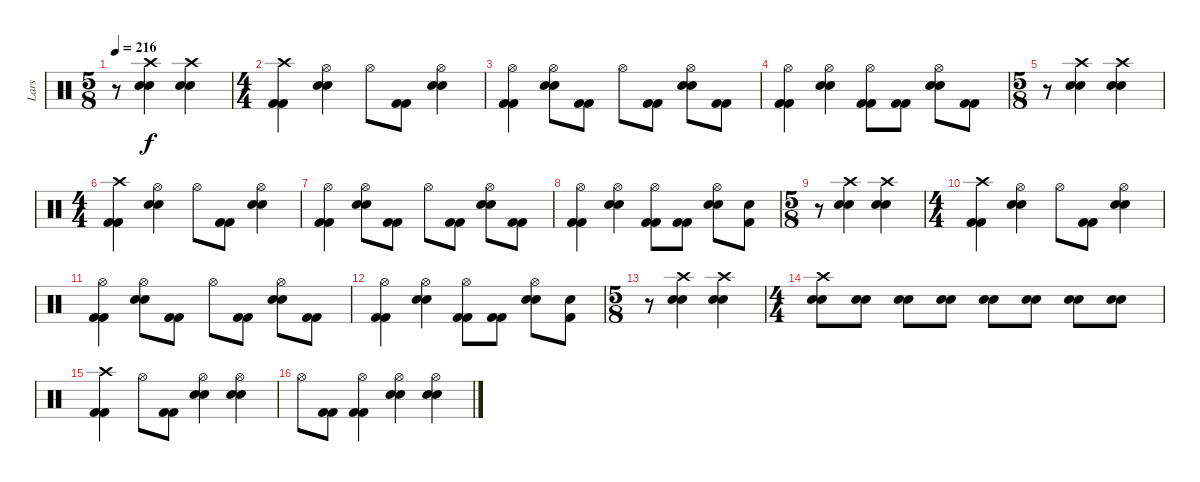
\track ("Lars" "Lars") {instrument percussion}
\staff {score}
\articulation defaults
\ts (5 8)
\tempo 216
\clef neutral
\ks c
r.8{dy f} ("Crash high (hit)" "Electric Snare (hit)" "Electric Snare (hit)").4 ("Crash high (hit)" "Electric Snare (hit)" "Electric Snare (hit)").4 |
\ts (4 4)
("Crash high (hit)" "Kick (hit) 2" "Kick (hit) 2").4 ("Hi-Hat (open)" "Electric Snare (hit)" "Electric Snare (hit)").4 "Hi-Hat (open)".8 ("Kick (hit) 2" "Kick (hit) 2").8 ("Hi-Hat (open)" "Electric Snare (hit)" "Electric Snare (hit)").4 |
("Hi-Hat (open)" "Kick (hit) 2" "Kick (hit) 2").4 ("Hi-Hat (open)" "Electric Snare (hit)" "Electric Snare (hit)").8 ("Kick (hit) 2" "Kick (hit) 2").8 "Hi-Hat (open)".8 ("Kick (hit) 2" "Kick (hit) 2").8 ("Hi-Hat (open)" "Electric Snare (hit)" "Electric Snare (hit)").8 ("Kick (hit) 2" "Kick (hit) 2").8 |
("Hi-Hat (open)" "Kick (hit) 2" "Kick (hit) 2").4 ("Hi-Hat (open)" "Electric Snare (hit)" "Electric Snare (hit)").4 ("Hi-Hat (open)" "Kick (hit) 2" "Kick (hit) 2").8 ("Kick (hit) 2" "Kick (hit) 2").8 ("Hi-Hat (open)" "Electric Snare (hit)" "Electric Snare (hit)").8 ("Kick (hit) 2" "Kick (hit) 2").8 |
\ts (5 8)
r.8 ("Crash high (hit)" "Electric Snare (hit)" "Electric Snare (hit)").4 ("Crash high (hit)" "Electric Snare (hit)" "Electric Snare (hit)").4 |
\ts (4 4)
("Crash high (hit)" "Kick (hit) 2" "Kick (hit) 2").4 ("Hi-Hat (open)" "Electric Snare (hit)" "Electric Snare (hit)").4 "Hi-Hat (open)".8 ("Kick (hit) 2" "Kick (hit) 2").8 ("Hi-Hat (open)" "Electric Snare (hit)" "Electric Snare (hit)").4 |
("Hi-Hat (open)" "Kick (hit) 2" "Kick (hit) 2").4 ("Hi-Hat (open)" "Electric Snare (hit)" "Electric Snare (hit)").8 ("Kick (hit) 2" "Kick (hit) 2").8 "Hi-Hat (open)".8 ("Kick (hit) 2" "Kick (hit) 2").8 ("Hi-Hat (open)" "Electric Snare (hit)" "Electric Snare (hit)").8 ("Kick (hit) 2" "Kick (hit) 2").8 |
("Hi-Hat (open)" "Kick (hit) 2" "Kick (hit) 2").4 ("Hi-Hat (open)" "Electric Snare (hit)" "Electric Snare (hit)").4 ("Hi-Hat (open)" "Kick (hit) 2" "Kick (hit) 2").8 ("Kick (hit) 2" "Kick (hit) 2").8 ("Hi-Hat (open)" "Electric Snare (hit)" "Electric Snare (hit)").8 ("Kick (hit) 2" "Snare (hit)").8 |
\ts (5 8)
r.8 ("Crash high (hit)" "Electric Snare (hit)" "Electric Snare (hit)").4 ("Crash high (hit)" "Electric Snare (hit)" "Electric Snare (hit)").4 |
\ts (4 4)
("Crash high (hit)" "Kick (hit) 2" "Kick (hit) 2").4 ("Hi-Hat (open)" "Electric Snare (hit)" "Electric Snare (hit)").4 "Hi-Hat (open)".8 ("Kick (hit) 2" "Kick (hit) 2").8 ("Hi-Hat (open)" "Electric Snare (hit)" "Electric Snare (hit)").4 |
("Hi-Hat (open)" "Kick (hit) 2" "Kick (hit) 2").4 ("Hi-Hat (open)" "Electric Snare (hit)" "Electric Snare (hit)").8 ("Kick (hit) 2" "Kick (hit) 2").8 "Hi-Hat (open)".8 ("Kick (hit) 2" "Kick (hit) 2").8 ("Hi-Hat (open)" "Electric Snare (hit)" "Electric Snare (hit)").8 ("Kick (hit) 2" "Kick (hit) 2").8 |
("Hi-Hat (open)" "Kick (hit) 2" "Kick (hit) 2").4 ("Hi-Hat (open)" "Electric Snare (hit)" "Electric Snare (hit)").4 ("Hi-Hat (open)" "Kick (hit) 2" "Kick (hit) 2").8 ("Kick (hit) 2" "Kick (hit) 2").8 ("Hi-Hat (open)" "Electric Snare (hit)" "Electric Snare (hit)").8 ("Kick (hit) 2" "Snare (hit)").8 |
\ts (5 8)
r.8 ("Crash high (hit)" "Electric Snare (hit)" "Electric Snare (hit)").4 ("Crash high (hit)" "Electric Snare (hit)" "Electric Snare (hit)").4 |
\ts (4 4)
("Crash high (hit)" "Electric Snare (hit)" "Electric Snare (hit)").8 ("Electric Snare (hit)" "Electric Snare (hit)").8 ("Electric Snare (hit)" "Electric Snare (hit)").8 ("Electric Snare (hit)" "Electric Snare (hit)").8 ("Electric Snare (hit)" "Electric Snare (hit)").8 ("Electric Snare (hit)" "Electric Snare (hit)").8 ("Electric Snare (hit)" "Electric Snare (hit)").8 ("Electric Snare (hit)" "Electric Snare (hit)").8 |
("Crash high (hit)" "Kick (hit) 2" "Kick (hit) 2").4 "Hi-Hat (open)".8 ("Kick (hit) 2" "Kick (hit) 2").8 ("Hi-Hat (open)" "Electric Snare (hit)" "Electric Snare (hit)").4 ("Hi-Hat (open)" "Electric Snare (hit)" "Electric Snare (hit)").4 |
"Hi-Hat (open)".8 ("Kick (hit) 2" "Kick (hit) 2").8 ("Hi-Hat (open)" "Kick (hit) 2" "Kick (hit) 2").4 ("Hi-Hat (open)" "Electric Snare (hit)" "Electric Snare (hit)").4 ("Hi-Hat (open)" "Electric Snare (hit)" "Electric Snare (hit)").4
